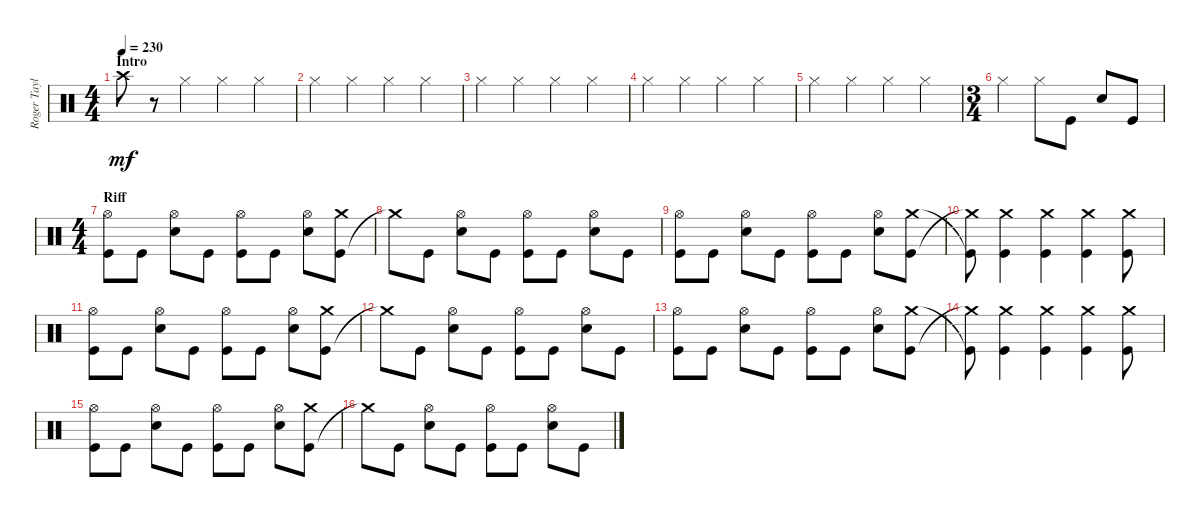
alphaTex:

\track ("Roger Taylor" "Roger Tayl") {instrument percussion}
\staff {score}
\articulation defaults
\ts (4 4)
\section ("" "Intro")
\tempo 230
\clef neutral
\ks c "Crash high (hit)".8{dy mf}
r.8 "Hi-Hat (closed)".4 "Hi-Hat (closed)".4 "Hi-Hat (closed)".4 |
"Hi-Hat (closed)".4 "Hi-Hat (closed)".4 "Hi-Hat (closed)".4 "Hi-Hat (closed)".4 |
"Hi-Hat (closed)".4 "Hi-Hat (closed)".4 "Hi-Hat (closed)".4 "Hi-Hat (closed)".4 |
"Hi-Hat (closed)".4 "Hi-Hat (closed)".4 "Hi-Hat (closed)".4 "Hi-Hat (closed)".4 |
"Hi-Hat (closed)".4 "Hi-Hat (closed)".4 "Hi-Hat (closed)".4 "Hi-Hat (closed)".4 |
\ts (3 4)
"Hi-Hat (closed)".4 "Hi-Hat (closed)".8 "Kick (hit)".8 "Snare (hit) 2".8 "Kick (hit)".8 |
\ts (4 4)
\section ("" "Riff")
("Hi-Hat (open)" "Kick (hit)").8 "Kick (hit)".8 ("Hi-Hat (open)" "Snare (hit) 2").8 "Kick (hit)".8 ("Kick (hit)" "Hi-Hat (open)").8 "Kick (hit)".8 ("Hi-Hat (open)" "Snare (hit) 2").8 ("Kick (hit)" "Crash medium (hit)").8 |
"Crash medium (hit)"{t}.8 "Kick (hit)".8 ("Snare (hit) 2" "Hi-Hat (open)").8 "Kick (hit)".8 ("Kick (hit)" "Hi-Hat (open)").8 "Kick (hit)".8 ("Snare (hit) 2" "Hi-Hat (open)").8 "Kick (hit)".8 |
("Hi-Hat (open)" "Kick (hit)").8 "Kick (hit)".8 ("Snare (hit) 2" "Hi-Hat (open)").8 "Kick (hit)".8 ("Kick (hit)" "Hi-Hat (open)").8 "Kick (hit)".8 ("Snare (hit) 2" "Hi-Hat (open)").8 ("Kick (hit)" "Crash medium (hit)").8 |
("Crash medium (hit)"{t} "Kick (hit)"{t}).8 ("Crash medium (hit)" "Kick (hit)").4 ("Crash medium (hit)" "Kick (hit)").4 ("Crash medium (hit)" "Kick (hit)").4 ("Crash medium (hit)" "Kick (hit)").8 |
("Hi-Hat (open)" "Kick (hit)").8 "Kick (hit)".8 ("Hi-Hat (open)" "Snare (hit) 2").8 "Kick (hit)".8 ("Kick (hit)" "Hi-Hat (open)").8 "Kick (hit)".8 ("Hi-Hat (open)" "Snare (hit) 2").8 ("Kick (hit)" "Crash medium (hit)").8 |
"Crash medium (hit)"{t}.8 "Kick (hit)".8 ("Snare (hit) 2" "Hi-Hat (open)").8 "Kick (hit)".8 ("Kick (hit)" "Hi-Hat (open)").8 "Kick (hit)".8 ("Snare (hit) 2" "Hi-Hat (open)").8 "Kick (hit)".8 |
("Hi-Hat (open)" "Kick (hit)").8 "Kick (hit)".8 ("Snare (hit) 2" "Hi-Hat (open)").8 "Kick (hit)".8 ("Kick (hit)" "Hi-Hat (open)").8 "Kick (hit)".8 ("Snare (hit) 2" "Hi-Hat (open)").8 ("Kick (hit)" "Crash medium (hit)").8 |
("Crash medium (hit)"{t} "Kick (hit)"{t}).8 ("Crash medium (hit)" "Kick (hit)").4 ("Crash medium (hit)" "Kick (hit)").4 ("Crash medium (hit)" "Kick (hit)").4 ("Crash medium (hit)" "Kick (hit)").8 |
("Hi-Hat (open)" "Kick (hit)").8 "Kick (hit)".8 ("Hi-Hat (open)" "Snare (hit) 2").8 "Kick (hit)".8 ("Kick (hit)" "Hi-Hat (open)").8 "Kick (hit)".8 ("Hi-Hat (open)" "Snare (hit) 2").8 ("Kick (hit)" "Crash medium (hit)").8 |
"Crash medium (hit)"{t}.8 "Kick (hit)".8 ("Snare (hit) 2" "Hi-Hat (open)").8 "Kick (hit)".8 ("Kick (hit)" "Hi-Hat (open)").8 "Kick (hit)".8 ("Snare (hit) 2" "Hi-Hat (open)").8 "Kick (hit)".8
